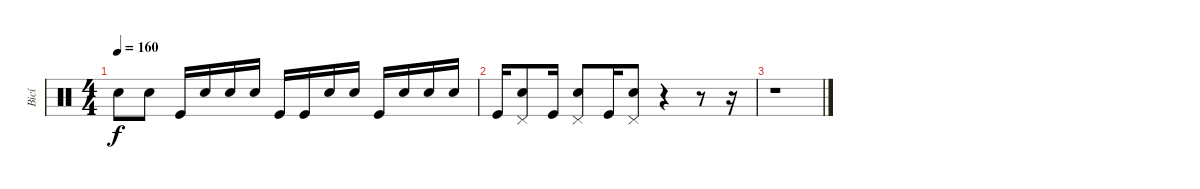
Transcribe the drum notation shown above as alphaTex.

\track ("Bicí" "Bicí") {instrument percussion}
\staff {score}
\articulation defaults
\ts (4 4)
\tempo 160
\clef neutral
\ks c "Snare (hit)".8{dy f} "Snare (hit)".8 "Kick (hit)".16 "Electric Snare (hit)".16 "Electric Snare (hit)".16 "Electric Snare (hit)".16 "Kick (hit)".16 "Kick (hit)".16 "Electric Snare (hit)".16 "Electric Snare (hit)".16 "Kick (hit)".16 "Electric Snare (hit)".16 "Electric Snare (hit)".16 "Electric Snare (hit)".16
|
"Kick (hit)".16 ("Pedal Hi-Hat (hit)" "Electric Snare (hit)").8 "Kick (hit)".16 ("Pedal Hi-Hat (hit)" "Electric Snare (hit)").8 "Kick (hit)".16 ("Pedal Hi-Hat (hit)" "Electric Snare (hit)").8 r.4 r.8 r.16 |
r.1
